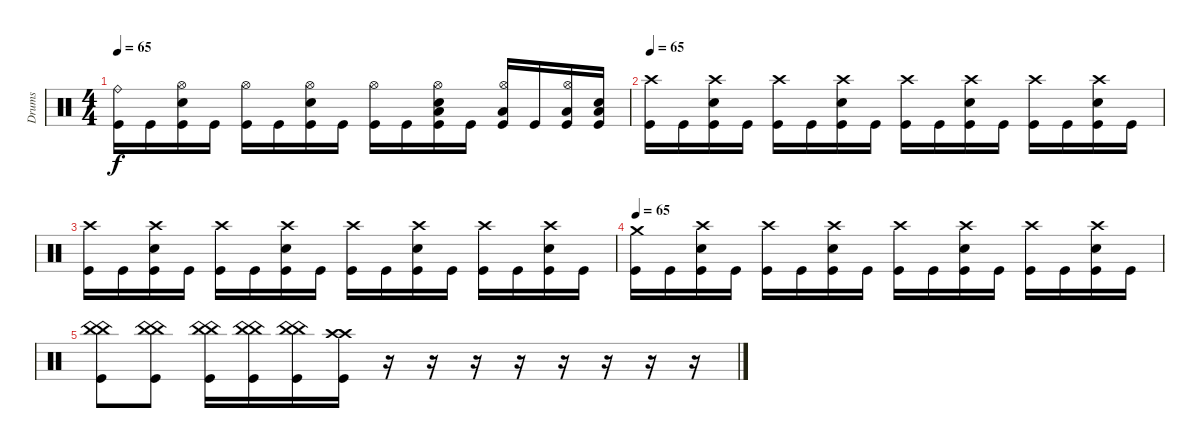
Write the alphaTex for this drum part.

\track ("Drums" "Drums") {instrument percussion}
\staff {score}
\articulation defaults
\ts (4 4)
\tempo 65
\clef neutral
\ks c
("Ride (bell)" "Kick (hit)").16{dy f} "Kick (hit)".16 ("Hi-Hat (open)" "Electric Snare (hit)" "Kick (hit)").16 "Kick (hit)".16 ("Hi-Hat (open)" "Kick (hit)").16 "Kick (hit)".16 ("Hi-Hat (open)" "Electric Snare (hit)" "Kick (hit)").16 "Kick (hit)".16 ("Hi-Hat (open)" "Kick (hit)").16 "Kick (hit)".16 ("Hi-Hat (open)" "Low Tom (hit)" "Electric Snare (hit)" "Kick (hit)").16 "Kick (hit)".16 ("Hi-Hat (open)" "Low Tom (hit)" "Kick (hit)").16 "Kick (hit)".16 ("Hi-Hat (open)" "Low Tom (hit)" "Kick (hit)").16 ("Low Tom (hit)" "Electric Snare (hit)" "Kick (hit)").16 |
\tempo 65
("Crash high (hit)" "Kick (hit)").16 "Kick (hit)".16 ("Crash high (hit)" "Electric Snare (hit)" "Kick (hit)").16 "Kick (hit)".16 ("Crash high (hit)" "Kick (hit)").16 "Kick (hit)".16 ("Crash high (hit)" "Electric Snare (hit)" "Kick (hit)").16 "Kick (hit)".16 ("Crash high (hit)" "Kick (hit)").16 "Kick (hit)".16 ("Crash high (hit)" "Electric Snare (hit)" "Kick (hit)").16 "Kick (hit)".16 ("Crash high (hit)" "Kick (hit)").16 "Kick (hit)".16 ("Crash high (hit)" "Electric Snare (hit)" "Kick (hit)").16 "Kick (hit)".16 |
("Crash high (hit)" "Kick (hit)").16 "Kick (hit)".16 ("Crash high (hit)" "Electric Snare (hit)" "Kick (hit)").16 "Kick (hit)".16 ("Crash high (hit)" "Kick (hit)").16 "Kick (hit)".16 ("Crash high (hit)" "Electric Snare (hit)" "Kick (hit)").16 "Kick (hit)".16 ("Crash high (hit)" "Kick (hit)").16 "Kick (hit)".16 ("Crash high (hit)" "Electric Snare (hit)" "Kick (hit)").16 "Kick (hit)".16 ("Crash high (hit)" "Kick (hit)").16 "Kick (hit)".16 ("Crash high (hit)" "Electric Snare (hit)" "Kick (hit)").16 "Kick (hit)".16 |
\tempo 65
("Crash medium (hit)" "Kick (hit)").16 "Kick (hit)".16 ("Crash high (hit)" "Electric Snare (hit)" "Kick (hit)").16 "Kick (hit)".16 ("Crash high (hit)" "Kick (hit)").16 "Kick (hit)".16 ("Crash high (hit)" "Electric Snare (hit)" "Kick (hit)").16 "Kick (hit)".16 ("Crash high (hit)" "Kick (hit)").16 "Kick (hit)".16 ("Crash high (hit)" "Electric Snare (hit)" "Kick (hit)").16 "Kick (hit)".16 ("Crash high (hit)" "Kick (hit)").16 "Kick (hit)".16 ("Crash high (hit)" "Electric Snare (hit)" "Kick (hit)").16 "Kick (hit)".16 |
("China (hit)" "China (hit)" "Kick (hit)").8 ("China (hit)" "China (hit)" "Kick (hit)").8 ("China (hit)" "China (hit)" "Kick (hit)").16 ("China (hit)" "China (hit)" "Kick (hit)").16 ("China (hit)" "China (hit)" "Kick (hit)").16 ("Crash high (hit)" "Crash high (hit)" "Kick (hit)").16 r.16 r.16 r.16 r.16 r.16 r.16 r.16 r.16
